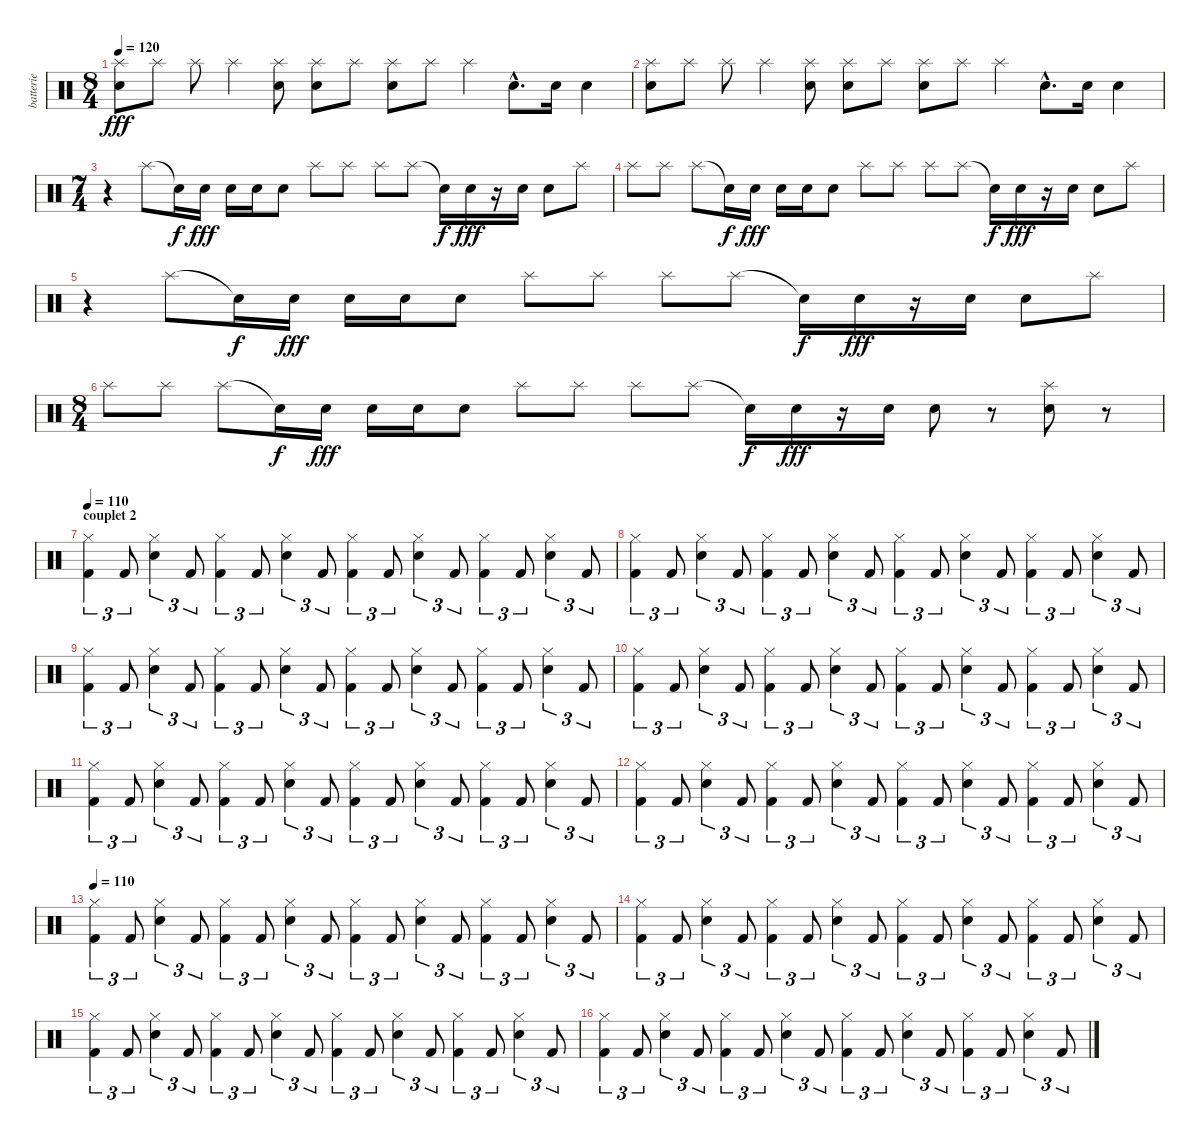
\track ("batterie" "batterie") {instrument percussion}
\staff {score}
\articulation defaults
\ts (8 4)
\tempo 120
\clef neutral
\ks c
("Splash (hit)" "Electric Snare (hit)").8{dy fff} "Splash (hit)".8 "Splash (hit)".8 "Splash (hit)".4 ("Splash (hit)" "Electric Snare (hit)").8 ("Splash (hit)" "Electric Snare (hit)").8 "Splash (hit)".8 ("Splash (hit)" "Electric Snare (hit)").8 "Splash (hit)".8 "Splash (hit)".4 "Electric Snare (hit)"{hac}.8{d} "Electric Snare (hit)".16 "Electric Snare (hit)".4 |
("Splash (hit)" "Electric Snare (hit)").8 "Splash (hit)".8 "Splash (hit)".8 "Splash (hit)".4 ("Splash (hit)" "Electric Snare (hit)").8 ("Splash (hit)" "Electric Snare (hit)").8 "Splash (hit)".8 ("Splash (hit)" "Electric Snare (hit)").8 "Splash (hit)".8 "Splash (hit)".4 "Electric Snare (hit)"{hac}.8{d} "Electric Snare (hit)".16 "Electric Snare (hit)".4 |
\ts (7 4)
r.4 "Splash (hit)".8 "Snare (hit)"{t}.16{dy f} "Electric Snare (hit)".16{dy fff} "Electric Snare (hit)".16 "Electric Snare (hit)".16 "Electric Snare (hit)".8 "Splash (hit)".8 "Splash (hit)".8 "Splash (hit)".8 "Splash (hit)".8 "Snare (hit)"{t}.16{dy f} "Electric Snare (hit)".16{dy fff} r.16 "Electric Snare (hit)".16 "Electric Snare (hit)".8 "Splash (hit)".8 |
"Splash (hit)".8 "Splash (hit)".8 "Splash (hit)".8 "Snare (hit)"{t}.16{dy f} "Electric Snare (hit)".16{dy fff} "Electric Snare (hit)".16 "Electric Snare (hit)".16 "Electric Snare (hit)".8 "Splash (hit)".8 "Splash (hit)".8 "Splash (hit)".8 "Splash (hit)".8 "Snare (hit)"{t}.16{dy f} "Electric Snare (hit)".16{dy fff} r.16 "Electric Snare (hit)".16 "Electric Snare (hit)".8 "Splash (hit)".8 |
r.4 "Splash (hit)".8 "Snare (hit)"{t}.16{dy f} "Electric Snare (hit)".16{dy fff} "Electric Snare (hit)".16 "Electric Snare (hit)".16 "Electric Snare (hit)".8 "Splash (hit)".8 "Splash (hit)".8 "Splash (hit)".8 "Splash (hit)".8 "Snare (hit)"{t}.16{dy f} "Electric Snare (hit)".16{dy fff} r.16 "Electric Snare (hit)".16 "Electric Snare (hit)".8 "Splash (hit)".8 |
\ts (8 4)
"Splash (hit)".8 "Splash (hit)".8 "Splash (hit)".8 "Snare (hit)"{t}.16{dy f} "Electric Snare (hit)".16{dy fff} "Electric Snare (hit)".16 "Electric Snare (hit)".16 "Electric Snare (hit)".8 "Splash (hit)".8 "Splash (hit)".8 "Splash (hit)".8 "Splash (hit)".8 "Snare (hit)"{t}.16{dy f} "Electric Snare (hit)".16{dy fff} r.16 "Electric Snare (hit)".16 "Electric Snare (hit)".8 r.8 ("Splash (hit)" "Electric Snare (hit)").8 r.8 |
\section ("" "couplet 2")
\tempo 110
("Hi-Hat (closed)" "Kick (hit) 2").4{tu (3 2) volume 11} "Kick (hit) 2".8{tu (3 2)} ("Hi-Hat (closed)" "Electric Snare (hit)").4{tu (3 2)} "Kick (hit) 2".8{tu (3 2)} ("Hi-Hat (closed)" "Kick (hit) 2").4{tu (3 2)} "Kick (hit) 2".8{tu (3 2)} ("Hi-Hat (closed)" "Electric Snare (hit)").4{tu (3 2)} "Kick (hit) 2".8{tu (3 2)} ("Hi-Hat (closed)" "Kick (hit) 2").4{tu (3 2)} "Kick (hit) 2".8{tu (3 2)} ("Hi-Hat (closed)" "Electric Snare (hit)").4{tu (3 2)} "Kick (hit) 2".8{tu (3 2)} ("Hi-Hat (closed)" "Kick (hit) 2").4{tu (3 2)} "Kick (hit) 2".8{tu (3 2)} ("Hi-Hat (closed)" "Electric Snare (hit)").4{tu (3 2)} "Kick (hit) 2".8{tu (3 2)} |
("Hi-Hat (closed)" "Kick (hit) 2").4{tu (3 2)} "Kick (hit) 2".8{tu (3 2)} ("Hi-Hat (closed)" "Electric Snare (hit)").4{tu (3 2)} "Kick (hit) 2".8{tu (3 2)} ("Hi-Hat (closed)" "Kick (hit) 2").4{tu (3 2)} "Kick (hit) 2".8{tu (3 2)} ("Hi-Hat (closed)" "Electric Snare (hit)").4{tu (3 2)} "Kick (hit) 2".8{tu (3 2)} ("Hi-Hat (closed)" "Kick (hit) 2").4{tu (3 2)} "Kick (hit) 2".8{tu (3 2)} ("Hi-Hat (closed)" "Electric Snare (hit)").4{tu (3 2)} "Kick (hit) 2".8{tu (3 2)} ("Hi-Hat (closed)" "Kick (hit) 2").4{tu (3 2)} "Kick (hit) 2".8{tu (3 2)} ("Hi-Hat (closed)" "Electric Snare (hit)").4{tu (3 2)} "Kick (hit) 2".8{tu (3 2)} |
("Hi-Hat (closed)" "Kick (hit) 2").4{tu (3 2)} "Kick (hit) 2".8{tu (3 2)} ("Hi-Hat (closed)" "Electric Snare (hit)").4{tu (3 2)} "Kick (hit) 2".8{tu (3 2)} ("Hi-Hat (closed)" "Kick (hit) 2").4{tu (3 2)} "Kick (hit) 2".8{tu (3 2)} ("Hi-Hat (closed)" "Electric Snare (hit)").4{tu (3 2)} "Kick (hit) 2".8{tu (3 2)} ("Hi-Hat (closed)" "Kick (hit) 2").4{tu (3 2)} "Kick (hit) 2".8{tu (3 2)} ("Hi-Hat (closed)" "Electric Snare (hit)").4{tu (3 2)} "Kick (hit) 2".8{tu (3 2)} ("Hi-Hat (closed)" "Kick (hit) 2").4{tu (3 2)} "Kick (hit) 2".8{tu (3 2)} ("Hi-Hat (closed)" "Electric Snare (hit)").4{tu (3 2)} "Kick (hit) 2".8{tu (3 2)} |
("Hi-Hat (closed)" "Kick (hit) 2").4{tu (3 2)} "Kick (hit) 2".8{tu (3 2)} ("Hi-Hat (closed)" "Electric Snare (hit)").4{tu (3 2)} "Kick (hit) 2".8{tu (3 2)} ("Hi-Hat (closed)" "Kick (hit) 2").4{tu (3 2)} "Kick (hit) 2".8{tu (3 2)} ("Hi-Hat (closed)" "Electric Snare (hit)").4{tu (3 2)} "Kick (hit) 2".8{tu (3 2)} ("Hi-Hat (closed)" "Kick (hit) 2").4{tu (3 2)} "Kick (hit) 2".8{tu (3 2)} ("Hi-Hat (closed)" "Electric Snare (hit)").4{tu (3 2)} "Kick (hit) 2".8{tu (3 2)} ("Hi-Hat (closed)" "Kick (hit) 2").4{tu (3 2)} "Kick (hit) 2".8{tu (3 2)} ("Hi-Hat (closed)" "Electric Snare (hit)").4{tu (3 2)} "Kick (hit) 2".8{tu (3 2)} |
("Hi-Hat (closed)" "Kick (hit) 2").4{tu (3 2) volume 13} "Kick (hit) 2".8{tu (3 2)} ("Hi-Hat (closed)" "Electric Snare (hit)").4{tu (3 2)} "Kick (hit) 2".8{tu (3 2)} ("Hi-Hat (closed)" "Kick (hit) 2").4{tu (3 2)} "Kick (hit) 2".8{tu (3 2)} ("Hi-Hat (closed)" "Electric Snare (hit)").4{tu (3 2)} "Kick (hit) 2".8{tu (3 2)} ("Hi-Hat (closed)" "Kick (hit) 2").4{tu (3 2)} "Kick (hit) 2".8{tu (3 2)} ("Hi-Hat (closed)" "Electric Snare (hit)").4{tu (3 2)} "Kick (hit) 2".8{tu (3 2)} ("Hi-Hat (closed)" "Kick (hit) 2").4{tu (3 2)} "Kick (hit) 2".8{tu (3 2)} ("Hi-Hat (closed)" "Electric Snare (hit)").4{tu (3 2)} "Kick (hit) 2".8{tu (3 2)} |
("Hi-Hat (closed)" "Kick (hit) 2").4{tu (3 2)} "Kick (hit) 2".8{tu (3 2)} ("Hi-Hat (closed)" "Electric Snare (hit)").4{tu (3 2)} "Kick (hit) 2".8{tu (3 2)} ("Hi-Hat (closed)" "Kick (hit) 2").4{tu (3 2)} "Kick (hit) 2".8{tu (3 2)} ("Hi-Hat (closed)" "Electric Snare (hit)").4{tu (3 2)} "Kick (hit) 2".8{tu (3 2)} ("Hi-Hat (closed)" "Kick (hit) 2").4{tu (3 2)} "Kick (hit) 2".8{tu (3 2)} ("Hi-Hat (closed)" "Electric Snare (hit)").4{tu (3 2)} "Kick (hit) 2".8{tu (3 2)} ("Hi-Hat (closed)" "Kick (hit) 2").4{tu (3 2)} "Kick (hit) 2".8{tu (3 2)} ("Hi-Hat (closed)" "Electric Snare (hit)").4{tu (3 2)} "Kick (hit) 2".8{tu (3 2)} |
\tempo 110
("Hi-Hat (closed)" "Kick (hit) 2").4{tu (3 2) volume 11} "Kick (hit) 2".8{tu (3 2)} ("Hi-Hat (closed)" "Electric Snare (hit)").4{tu (3 2)} "Kick (hit) 2".8{tu (3 2)} ("Hi-Hat (closed)" "Kick (hit) 2").4{tu (3 2)} "Kick (hit) 2".8{tu (3 2)} ("Hi-Hat (closed)" "Electric Snare (hit)").4{tu (3 2)} "Kick (hit) 2".8{tu (3 2)} ("Hi-Hat (closed)" "Kick (hit) 2").4{tu (3 2)} "Kick (hit) 2".8{tu (3 2)} ("Hi-Hat (closed)" "Electric Snare (hit)").4{tu (3 2)} "Kick (hit) 2".8{tu (3 2)} ("Hi-Hat (closed)" "Kick (hit) 2").4{tu (3 2)} "Kick (hit) 2".8{tu (3 2)} ("Hi-Hat (closed)" "Electric Snare (hit)").4{tu (3 2)} "Kick (hit) 2".8{tu (3 2)} |
("Hi-Hat (closed)" "Kick (hit) 2").4{tu (3 2)} "Kick (hit) 2".8{tu (3 2)} ("Hi-Hat (closed)" "Electric Snare (hit)").4{tu (3 2)} "Kick (hit) 2".8{tu (3 2)} ("Hi-Hat (closed)" "Kick (hit) 2").4{tu (3 2)} "Kick (hit) 2".8{tu (3 2)} ("Hi-Hat (closed)" "Electric Snare (hit)").4{tu (3 2)} "Kick (hit) 2".8{tu (3 2)} ("Hi-Hat (closed)" "Kick (hit) 2").4{tu (3 2)} "Kick (hit) 2".8{tu (3 2)} ("Hi-Hat (closed)" "Electric Snare (hit)").4{tu (3 2)} "Kick (hit) 2".8{tu (3 2)} ("Hi-Hat (closed)" "Kick (hit) 2").4{tu (3 2)} "Kick (hit) 2".8{tu (3 2)} ("Hi-Hat (closed)" "Electric Snare (hit)").4{tu (3 2)} "Kick (hit) 2".8{tu (3 2)} |
("Hi-Hat (closed)" "Kick (hit) 2").4{tu (3 2)} "Kick (hit) 2".8{tu (3 2)} ("Hi-Hat (closed)" "Electric Snare (hit)").4{tu (3 2)} "Kick (hit) 2".8{tu (3 2)} ("Hi-Hat (closed)" "Kick (hit) 2").4{tu (3 2)} "Kick (hit) 2".8{tu (3 2)} ("Hi-Hat (closed)" "Electric Snare (hit)").4{tu (3 2)} "Kick (hit) 2".8{tu (3 2)} ("Hi-Hat (closed)" "Kick (hit) 2").4{tu (3 2)} "Kick (hit) 2".8{tu (3 2)} ("Hi-Hat (closed)" "Electric Snare (hit)").4{tu (3 2)} "Kick (hit) 2".8{tu (3 2)} ("Hi-Hat (closed)" "Kick (hit) 2").4{tu (3 2)} "Kick (hit) 2".8{tu (3 2)} ("Hi-Hat (closed)" "Electric Snare (hit)").4{tu (3 2)} "Kick (hit) 2".8{tu (3 2)} |
("Hi-Hat (closed)" "Kick (hit) 2").4{tu (3 2)} "Kick (hit) 2".8{tu (3 2)} ("Hi-Hat (closed)" "Electric Snare (hit)").4{tu (3 2)} "Kick (hit) 2".8{tu (3 2)} ("Hi-Hat (closed)" "Kick (hit) 2").4{tu (3 2)} "Kick (hit) 2".8{tu (3 2)} ("Hi-Hat (closed)" "Electric Snare (hit)").4{tu (3 2)} "Kick (hit) 2".8{tu (3 2)} ("Hi-Hat (closed)" "Kick (hit) 2").4{tu (3 2)} "Kick (hit) 2".8{tu (3 2)} ("Hi-Hat (closed)" "Electric Snare (hit)").4{tu (3 2)} "Kick (hit) 2".8{tu (3 2)} ("Hi-Hat (closed)" "Kick (hit) 2").4{tu (3 2)} "Kick (hit) 2".8{tu (3 2)} ("Hi-Hat (closed)" "Electric Snare (hit)").4{tu (3 2)} "Kick (hit) 2".8{tu (3 2)}
